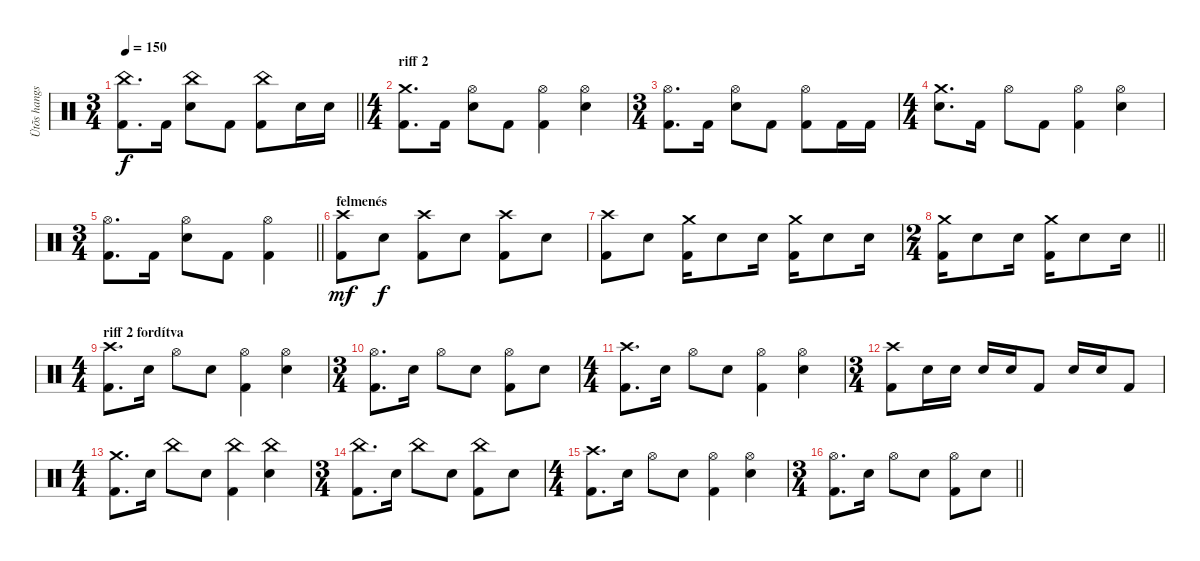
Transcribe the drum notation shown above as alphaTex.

\track ("Ütõs hangszer" "Ütõs hangs") {instrument percussion}
\staff {score}
\articulation defaults
\ts (3 4)
\tempo 150
\clef neutral
\barLineRight lightlight
\ks c
("China (hit)" "Kick (hit) 2").8{d dy f} "Kick (hit) 2".16 ("China (hit)" "Electric Snare (hit)").8 "Kick (hit) 2".8 ("China (hit)" "Kick (hit) 2").8 "Electric Snare (hit)".16 "Electric Snare (hit)".16 |
\ts (4 4)
\section ("" "riff 2")
("Crash medium (hit)" "Kick (hit) 2").8{d} "Kick (hit) 2".16 ("Hi-Hat (open)" "Electric Snare (hit)").8 "Kick (hit) 2".8 ("Hi-Hat (open)" "Kick (hit) 2").4 ("Hi-Hat (open)" "Electric Snare (hit)").4 |
\ts (3 4)
("Hi-Hat (open)" "Kick (hit) 2").8{d} "Kick (hit) 2".16 ("Hi-Hat (open)" "Electric Snare (hit)").8 "Kick (hit) 2".8 ("Hi-Hat (open)" "Kick (hit) 2").8 "Kick (hit) 2".16 "Kick (hit) 2".16 |
\ts (4 4)
("Crash medium (hit)" "Electric Snare (hit)").8{d} "Kick (hit) 2".16 "Hi-Hat (open)".8 "Kick (hit) 2".8 ("Hi-Hat (open)" "Kick (hit) 2").4 ("Hi-Hat (open)" "Electric Snare (hit)").4 |
\ts (3 4)
\barLineRight lightlight
("Hi-Hat (open)" "Kick (hit) 2").8{d} "Kick (hit) 2".16 ("Hi-Hat (open)" "Electric Snare (hit)").8 "Kick (hit) 2".8 ("Hi-Hat (open)" "Kick (hit) 2").4 |
\section ("" "felmenés")
("Crash high (hit)" "Kick (hit) 2").8{dy mf} "Electric Snare (hit)".8{dy f} ("Crash high (hit)" "Kick (hit) 2").8 "Electric Snare (hit)".8 ("Crash high (hit)" "Kick (hit) 2").8 "Electric Snare (hit)".8 |
("Crash high (hit)" "Kick (hit) 2").8 "Electric Snare (hit)".8 ("Crash medium (hit)" "Kick (hit) 2").16 "Electric Snare (hit)".8 "Electric Snare (hit)".16 ("Crash medium (hit)" "Kick (hit) 2").16 "Electric Snare (hit)".8 "Electric Snare (hit)".16 |
\ts (2 4)
\barLineRight lightlight
("Crash medium (hit)" "Kick (hit) 2").16 "Electric Snare (hit)".8 "Electric Snare (hit)".16 ("Crash medium (hit)" "Kick (hit) 2").16 "Electric Snare (hit)".8 "Electric Snare (hit)".16 |
\ts (4 4)
\section ("" "riff 2 fordítva")
("Crash high (hit)" "Kick (hit) 2").8{d} "Electric Snare (hit)".16 "Hi-Hat (open)".8 "Electric Snare (hit)".8 ("Hi-Hat (open)" "Kick (hit) 2").4 ("Hi-Hat (open)" "Electric Snare (hit)").4 |
\ts (3 4)
("Hi-Hat (open)" "Kick (hit) 2").8{d} "Electric Snare (hit)".16 "Hi-Hat (open)".8 "Electric Snare (hit)".8 ("Hi-Hat (open)" "Kick (hit) 2").8 "Electric Snare (hit)".8 |
\ts (4 4)
("Crash high (hit)" "Kick (hit) 2").8{d} "Electric Snare (hit)".16 "Hi-Hat (open)".8 "Electric Snare (hit)".8 ("Hi-Hat (open)" "Kick (hit) 2").4 ("Hi-Hat (open)" "Electric Snare (hit)").4 |
\ts (3 4)
("Crash high (hit)" "Kick (hit) 2").8 "Electric Snare (hit)".16 "Electric Snare (hit)".16 "Electric Snare (hit)".16 "Electric Snare (hit)".16 "Kick (hit) 2".8 "Electric Snare (hit)".16 "Electric Snare (hit)".16 "Kick (hit) 2".8 |
\ts (4 4)
("Crash medium (hit)" "Kick (hit) 2").8{d} "Electric Snare (hit)".16 "China (hit)".8 "Electric Snare (hit)".8 ("China (hit)" "Kick (hit) 2").4 ("China (hit)" "Electric Snare (hit)").4 |
\ts (3 4)
("China (hit)" "Kick (hit) 2").8{d} "Electric Snare (hit)".16 "China (hit)".8 "Electric Snare (hit)".8 ("China (hit)" "Kick (hit) 2").8 "Electric Snare (hit)".8 |
\ts (4 4)
("Crash high (hit)" "Kick (hit) 2").8{d} "Electric Snare (hit)".16 "Hi-Hat (open)".8 "Electric Snare (hit)".8 ("Hi-Hat (open)" "Kick (hit) 2").4 ("Hi-Hat (open)" "Electric Snare (hit)").4 |
\ts (3 4)
\barLineRight lightlight
("Hi-Hat (open)" "Kick (hit) 2").8{d} "Electric Snare (hit)".16 "Hi-Hat (open)".8 "Electric Snare (hit)".8 ("Hi-Hat (open)" "Kick (hit) 2").8 "Electric Snare (hit)".8
